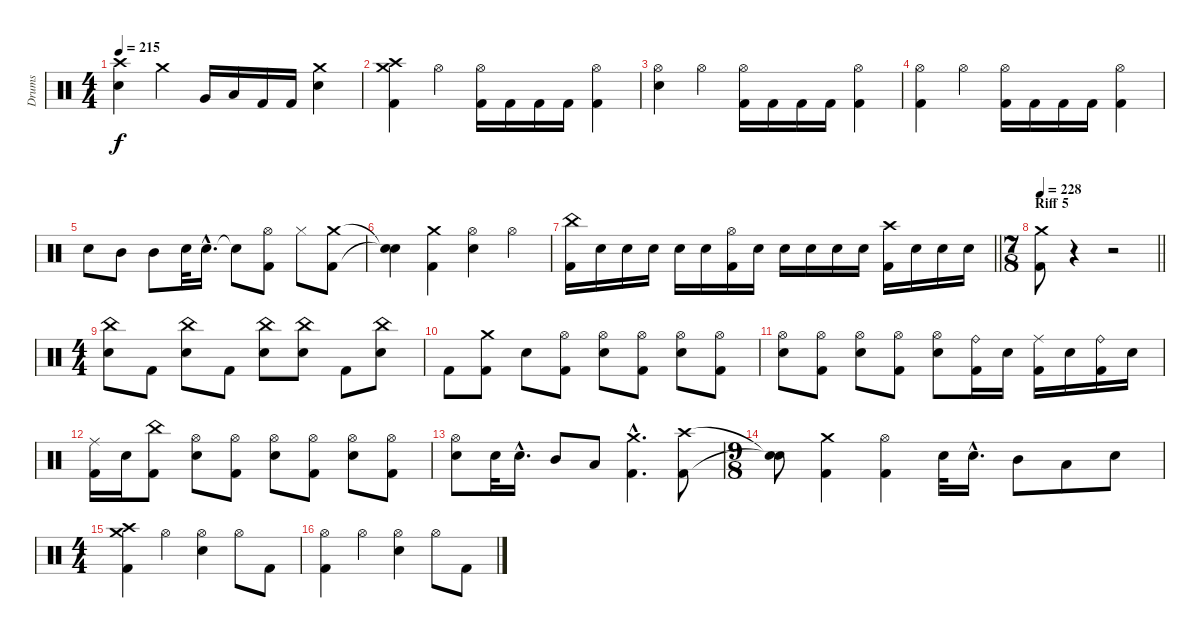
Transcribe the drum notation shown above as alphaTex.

\track ("Drums" "Drums") {instrument percussion}
\staff {score}
\articulation defaults
\ts (4 4)
\tempo 215
\clef neutral
\ks c
("Crash high (hit)" "Electric Snare (hit)").4{dy f} "Crash medium (hit)".4 "Very Low Tom (hit)".16 "Low Tom (hit)".16 "Kick (hit) 2".16 "Kick (hit) 2".16 ("Crash medium (hit)" "Electric Snare (hit)").4 |
("Crash medium (hit)" "Crash high (hit)" "Kick (hit) 2").4 "Hi-Hat (open)".4 ("Hi-Hat (open)" "Kick (hit) 2").16 "Kick (hit) 2".16 "Kick (hit) 2".16 "Kick (hit) 2".16 ("Hi-Hat (open)" "Kick (hit) 2").4 |
("Hi-Hat (open)" "Electric Snare (hit)").4 "Hi-Hat (open)".4 ("Hi-Hat (open)" "Kick (hit) 2").16 "Kick (hit) 2".16 "Kick (hit) 2".16 "Kick (hit) 2".16 ("Hi-Hat (open)" "Kick (hit) 2").4 |
("Hi-Hat (open)" "Kick (hit) 2").4 "Hi-Hat (open)".4 ("Hi-Hat (open)" "Kick (hit) 2").16 "Kick (hit) 2".16 "Kick (hit) 2".16 "Kick (hit) 2".16 ("Hi-Hat (open)" "Kick (hit) 2").4 |
"Electric Snare (hit)".8 "Mid Tom (hit)".8 "Mid Tom (hit)".8 "Electric Snare (hit)".32 "Electric Snare (hit)"{hac}.16{d} "Snare (hit)"{t}.8 ("Hi-Hat (open)" "Kick (hit) 2").8 "Hi-Hat (closed)".8 ("Crash medium (hit)" "Kick (hit) 2").8 |
("Snare (hit)"{t} "Snare (hit)"{t}).4 ("Crash medium (hit)" "Kick (hit) 2").4 ("Hi-Hat (open)" "Electric Snare (hit)").4 "Hi-Hat (open)".4 |
\barLineRight lightlight
("China (hit)" "Kick (hit) 2").16 "Electric Snare (hit)".16 "Electric Snare (hit)".16 "Electric Snare (hit)".16 "Electric Snare (hit)".16 "Electric Snare (hit)".16 ("Hi-Hat (open)" "Kick (hit) 2").16 "Electric Snare (hit)".16 "Electric Snare (hit)".16 "Electric Snare (hit)".16 "Electric Snare (hit)".16 "Electric Snare (hit)".16 ("Crash high (hit)" "Kick (hit) 2").16 "Electric Snare (hit)".16 "Electric Snare (hit)".16 "Electric Snare (hit)".16 |
\ts (7 8)
\section ("" "Riff 5")
\tempo 228
\barLineRight lightlight
("Crash medium (hit)" "Kick (hit) 2").8 r.4{volume 0} r.2 |
\ts (4 4)
("China (hit)" "Electric Snare (hit)").8{volume 13} "Kick (hit) 2".8 ("China (hit)" "Electric Snare (hit)").8 "Kick (hit) 2".8 ("China (hit)" "Electric Snare (hit)").8 ("China (hit)" "Electric Snare (hit)").8 "Kick (hit) 2".8 ("China (hit)" "Electric Snare (hit)").8 |
"Kick (hit) 2".8 ("Crash medium (hit)" "Kick (hit) 2").8 "Electric Snare (hit)".8 ("Hi-Hat (open)" "Kick (hit) 2").8 ("Hi-Hat (open)" "Electric Snare (hit)").8 ("Hi-Hat (open)" "Kick (hit) 2").8 ("Hi-Hat (open)" "Electric Snare (hit)").8 ("Hi-Hat (open)" "Kick (hit) 2").8 |
("Hi-Hat (open)" "Electric Snare (hit)").8 ("Hi-Hat (open)" "Kick (hit) 2").8 ("Hi-Hat (open)" "Electric Snare (hit)").8 ("Hi-Hat (open)" "Kick (hit) 2").8 ("Hi-Hat (open)" "Electric Snare (hit)").8 ("Ride (bell)" "Kick (hit) 2").16 "Electric Snare (hit)".16 ("Ride (middle)" "Kick (hit) 2").16 "Electric Snare (hit)".16 ("Ride (bell)" "Kick (hit) 2").16 "Electric Snare (hit)".16 |
("Ride (middle)" "Kick (hit) 2").16 "Electric Snare (hit)".16 ("China (hit)" "Kick (hit) 2").8 ("Hi-Hat (open)" "Electric Snare (hit)").8 ("Hi-Hat (open)" "Kick (hit) 2").8 ("Hi-Hat (open)" "Electric Snare (hit)").8 ("Hi-Hat (open)" "Kick (hit) 2").8 ("Hi-Hat (open)" "Electric Snare (hit)").8 ("Hi-Hat (open)" "Kick (hit) 2").8 |
("Hi-Hat (open)" "Electric Snare (hit)").8 "Electric Snare (hit)".32 "Electric Snare (hit)"{hac}.16{d} "Mid Tom (hit)".8 "Low Tom (hit)".8 ("Crash medium (hit)"{hac} "Kick (hit) 2"{hac}).4{d} ("Crash high (hit)" "Kick (hit) 2").8 |
\ts (9 8)
("Snare (hit)"{t} "Snare (hit)"{t}).8 ("Crash medium (hit)" "Kick (hit) 2").4 ("Hi-Hat (open)" "Kick (hit) 2").4 "Electric Snare (hit)".32 "Electric Snare (hit)"{hac}.16{d} "Mid Tom (hit)".8 "Low Tom (hit)".8 "Electric Snare (hit)".8 |
\ts (4 4)
("Crash medium (hit)" "Crash high (hit)" "Kick (hit) 2").4 "Hi-Hat (open)".4 ("Hi-Hat (open)" "Electric Snare (hit)").4 "Hi-Hat (open)".8 "Kick (hit) 2".8 |
("Hi-Hat (open)" "Kick (hit) 2").4 "Hi-Hat (open)".4 ("Hi-Hat (open)" "Electric Snare (hit)").4 "Hi-Hat (open)".8 "Kick (hit) 2".8
